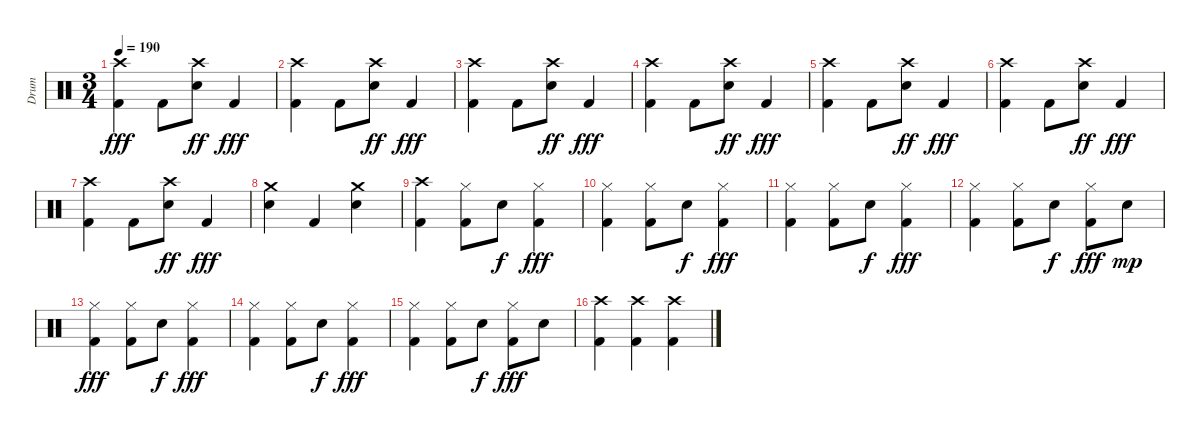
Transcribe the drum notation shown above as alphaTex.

\track ("Drum" "Drum") {instrument percussion}
\staff {score}
\articulation defaults
\ts (3 4)
\tempo 190
\clef neutral
\ks c
("Crash high (hit)" "Kick (hit) 2").4{dy fff} "Kick (hit) 2".8 ("Crash high (hit)" "Snare (hit) 2").8{dy ff} "Kick (hit) 2".4{dy fff} |
("Crash high (hit)" "Kick (hit) 2").4 "Kick (hit) 2".8 ("Crash high (hit)" "Snare (hit) 2").8{dy ff} "Kick (hit) 2".4{dy fff} |
("Crash high (hit)" "Kick (hit) 2").4 "Kick (hit) 2".8 ("Crash high (hit)" "Snare (hit) 2").8{dy ff} "Kick (hit) 2".4{dy fff} |
("Crash high (hit)" "Kick (hit) 2").4 "Kick (hit) 2".8 ("Crash high (hit)" "Snare (hit) 2").8{dy ff} "Kick (hit) 2".4{dy fff} |
("Crash high (hit)" "Kick (hit) 2").4 "Kick (hit) 2".8 ("Crash high (hit)" "Snare (hit) 2").8{dy ff} "Kick (hit) 2".4{dy fff} |
("Crash high (hit)" "Kick (hit) 2").4 "Kick (hit) 2".8 ("Crash high (hit)" "Snare (hit) 2").8{dy ff} "Kick (hit) 2".4{dy fff} |
("Crash high (hit)" "Kick (hit) 2").4 "Kick (hit) 2".8 ("Crash high (hit)" "Snare (hit) 2").8{dy ff} "Kick (hit) 2".4{dy fff} |
("Crash medium (hit)" "Snare (hit) 2").4 "Kick (hit) 2".4 ("Crash medium (hit)" "Snare (hit) 2").4 |
("Crash high (hit)" "Kick (hit) 2").4 ("Hi-Hat (closed)" "Kick (hit) 2").8 "Snare (hit) 2".8{dy f} ("Hi-Hat (closed)" "Kick (hit) 2").4{dy fff} |
("Hi-Hat (closed)" "Kick (hit) 2").4 ("Hi-Hat (closed)" "Kick (hit) 2").8 "Snare (hit) 2".8{dy f} ("Hi-Hat (closed)" "Kick (hit) 2").4{dy fff} |
("Hi-Hat (closed)" "Kick (hit) 2").4 ("Hi-Hat (closed)" "Kick (hit) 2").8 "Snare (hit) 2".8{dy f} ("Hi-Hat (closed)" "Kick (hit) 2").4{dy fff} |
("Hi-Hat (closed)" "Kick (hit) 2").4 ("Hi-Hat (closed)" "Kick (hit) 2").8 "Snare (hit) 2".8{dy f} ("Hi-Hat (closed)" "Kick (hit) 2").8{dy fff} "Snare (hit) 2".8{dy mp} |
("Hi-Hat (closed)" "Kick (hit) 2").4{dy fff} ("Hi-Hat (closed)" "Kick (hit) 2").8 "Snare (hit) 2".8{dy f} ("Hi-Hat (closed)" "Kick (hit) 2").4{dy fff} |
("Hi-Hat (closed)" "Kick (hit) 2").4 ("Hi-Hat (closed)" "Kick (hit) 2").8 "Snare (hit) 2".8{dy f} ("Hi-Hat (closed)" "Kick (hit) 2").4{dy fff} |
("Hi-Hat (closed)" "Kick (hit) 2").4 ("Hi-Hat (closed)" "Kick (hit) 2").8 "Snare (hit) 2".8{dy f} ("Hi-Hat (closed)" "Kick (hit) 2").8{dy fff} "Snare (hit) 2".8 |
("Crash high (hit)" "Kick (hit) 2").4 ("Crash high (hit)" "Kick (hit) 2").4 ("Crash high (hit)" "Kick (hit) 2").4
